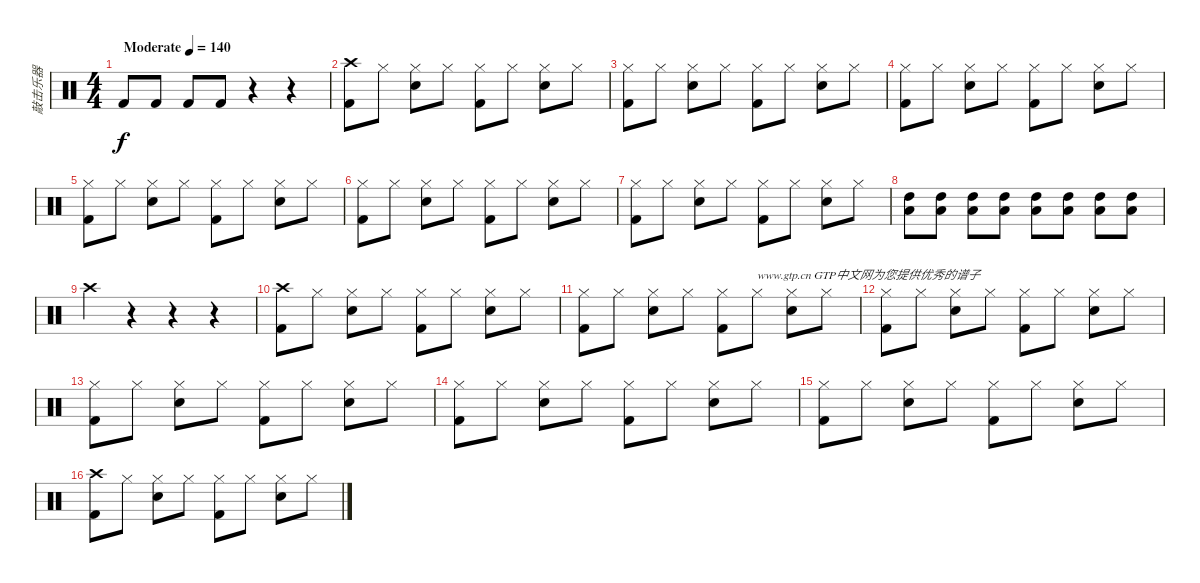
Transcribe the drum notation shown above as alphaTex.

\track ("敲击乐器" "敲击乐器") {instrument percussion}
\staff {score}
\articulation defaults
\ts (4 4)
\tempo (140 "Moderate")
\clef neutral
\ks c "Kick (hit) 2".8{dy f} "Kick (hit) 2".8 "Kick (hit) 2".8 "Kick (hit) 2".8
r.4 r.4 |
("Kick (hit) 2" "Crash high (hit)").8 "Hi-Hat (closed)".8 ("Snare (hit) 2" "Hi-Hat (closed)").8 "Hi-Hat (closed)".8 ("Kick (hit) 2" "Hi-Hat (closed)").8 "Hi-Hat (closed)".8 ("Snare (hit) 2" "Hi-Hat (closed)").8 "Hi-Hat (closed)".8 |
("Kick (hit) 2" "Hi-Hat (closed)").8 "Hi-Hat (closed)".8 ("Snare (hit) 2" "Hi-Hat (closed)").8 "Hi-Hat (closed)".8 ("Kick (hit) 2" "Hi-Hat (closed)").8 "Hi-Hat (closed)".8 ("Snare (hit) 2" "Hi-Hat (closed)").8 "Hi-Hat (closed)".8 |
("Kick (hit) 2" "Hi-Hat (closed)").8 "Hi-Hat (closed)".8 ("Snare (hit) 2" "Hi-Hat (closed)").8 "Hi-Hat (closed)".8 ("Kick (hit) 2" "Hi-Hat (closed)").8 "Hi-Hat (closed)".8 ("Snare (hit) 2" "Hi-Hat (closed)").8 "Hi-Hat (closed)".8 |
("Kick (hit) 2" "Hi-Hat (closed)").8 "Hi-Hat (closed)".8 ("Snare (hit) 2" "Hi-Hat (closed)").8 "Hi-Hat (closed)".8 ("Kick (hit) 2" "Hi-Hat (closed)").8 "Hi-Hat (closed)".8 ("Snare (hit) 2" "Hi-Hat (closed)").8 "Hi-Hat (closed)".8 |
("Kick (hit) 2" "Hi-Hat (closed)").8 "Hi-Hat (closed)".8 ("Snare (hit) 2" "Hi-Hat (closed)").8 "Hi-Hat (closed)".8 ("Kick (hit) 2" "Hi-Hat (closed)").8 "Hi-Hat (closed)".8 ("Snare (hit) 2" "Hi-Hat (closed)").8 "Hi-Hat (closed)".8 |
("Kick (hit) 2" "Hi-Hat (closed)").8 "Hi-Hat (closed)".8 ("Snare (hit) 2" "Hi-Hat (closed)").8 "Hi-Hat (closed)".8 ("Kick (hit) 2" "Hi-Hat (closed)").8 "Hi-Hat (closed)".8 ("Snare (hit) 2" "Hi-Hat (closed)").8 "Hi-Hat (closed)".8 |
("High Tom (hit)" "Low Tom (hit)").8 ("High Tom (hit)" "Low Tom (hit)").8 ("High Tom (hit)" "Low Tom (hit)").8 ("High Tom (hit)" "Low Tom (hit)").8 ("High Tom (hit)" "Low Tom (hit)").8 ("High Tom (hit)" "Low Tom (hit)").8 ("High Tom (hit)" "Low Tom (hit)").8 ("High Tom (hit)" "Low Tom (hit)").8 |
"Crash high (hit)".4 r.4 r.4 r.4 |
("Kick (hit) 2" "Crash high (hit)").8 "Hi-Hat (closed)".8 ("Snare (hit) 2" "Hi-Hat (closed)").8 "Hi-Hat (closed)".8 ("Kick (hit) 2" "Hi-Hat (closed)").8 "Hi-Hat (closed)".8 ("Snare (hit) 2" "Hi-Hat (closed)").8 "Hi-Hat (closed)".8 |
("Kick (hit) 2" "Hi-Hat (closed)").8 "Hi-Hat (closed)".8 ("Snare (hit) 2" "Hi-Hat (closed)").8 "Hi-Hat (closed)".8 ("Kick (hit) 2" "Hi-Hat (closed)").8 "Hi-Hat (closed)".8{txt "www.gtp.cn GTP中文网为您提供优秀的谱子"} ("Snare (hit) 2" "Hi-Hat (closed)").8 "Hi-Hat (closed)".8 |
("Kick (hit) 2" "Hi-Hat (closed)").8 "Hi-Hat (closed)".8 ("Snare (hit) 2" "Hi-Hat (closed)").8 "Hi-Hat (closed)".8 ("Kick (hit) 2" "Hi-Hat (closed)").8 "Hi-Hat (closed)".8 ("Snare (hit) 2" "Hi-Hat (closed)").8 "Hi-Hat (closed)".8 |
("Kick (hit) 2" "Hi-Hat (closed)").8 "Hi-Hat (closed)".8 ("Snare (hit) 2" "Hi-Hat (closed)").8 "Hi-Hat (closed)".8 ("Kick (hit) 2" "Hi-Hat (closed)").8 "Hi-Hat (closed)".8 ("Snare (hit) 2" "Hi-Hat (closed)").8 "Hi-Hat (closed)".8 |
("Kick (hit) 2" "Hi-Hat (closed)").8 "Hi-Hat (closed)".8 ("Snare (hit) 2" "Hi-Hat (closed)").8 "Hi-Hat (closed)".8 ("Kick (hit) 2" "Hi-Hat (closed)").8 "Hi-Hat (closed)".8 ("Snare (hit) 2" "Hi-Hat (closed)").8 "Hi-Hat (closed)".8 |
("Kick (hit) 2" "Hi-Hat (closed)").8 "Hi-Hat (closed)".8 ("Snare (hit) 2" "Hi-Hat (closed)").8 "Hi-Hat (closed)".8 ("Kick (hit) 2" "Hi-Hat (closed)").8 "Hi-Hat (closed)".8 ("Snare (hit) 2" "Hi-Hat (closed)").8 "Hi-Hat (closed)".8 |
("Kick (hit) 2" "Crash high (hit)").8 "Hi-Hat (closed)".8 ("Snare (hit) 2" "Hi-Hat (closed)").8 "Hi-Hat (closed)".8 ("Kick (hit) 2" "Hi-Hat (closed)").8 "Hi-Hat (closed)".8 ("Snare (hit) 2" "Hi-Hat (closed)").8 "Hi-Hat (closed)".8
